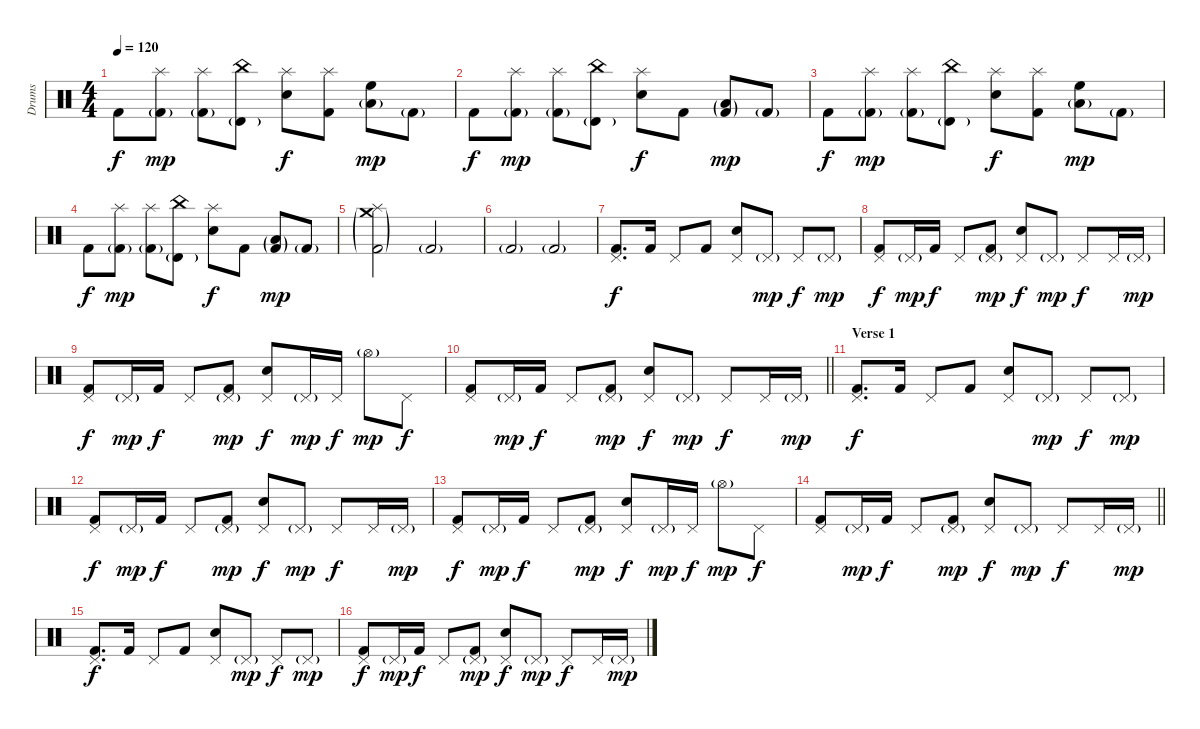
\track ("Drums" "Drums") {instrument percussion}
\staff {score}
\articulation defaults
\ts (4 4)
\tempo 120
\clef neutral
\ks c "Kick (hit) 2".8{dy f}
("Splash (hit)" "Kick (hit) 2"{g}).8{dy mp} ("Splash (hit)" "Kick (hit) 2"{g}).8 ("China (hit)" "Timbale high (hit)"{g}).8 ("Splash (hit)" "Electric Snare (hit)").8{dy f} ("Splash (hit)" "Kick (hit) 2").8 ("High Floor Tom (hit)" "Low Tom (hit)"{g}).8{dy mp} "Kick (hit) 2"{g}.8 |
"Kick (hit) 2".8{dy f} ("Splash (hit)" "Kick (hit) 2"{g}).8{dy mp} ("Splash (hit)" "Kick (hit) 2"{g}).8 ("China (hit)" "Timbale high (hit)"{g}).8 ("Splash (hit)" "Electric Snare (hit)").8{dy f} "Kick (hit) 2".8 ("Low Tom (hit)"{g} "Kick (hit) 2"{g}).8{dy mp} "Kick (hit) 2"{g}.8 |
"Kick (hit) 2".8{dy f} ("Splash (hit)" "Kick (hit) 2"{g}).8{dy mp} ("Splash (hit)" "Kick (hit) 2"{g}).8 ("China (hit)" "Timbale high (hit)"{g}).8 ("Splash (hit)" "Electric Snare (hit)").8{dy f} ("Splash (hit)" "Kick (hit) 2").8 ("High Floor Tom (hit)" "Low Tom (hit)"{g}).8{dy mp} "Kick (hit) 2"{g}.8 |
"Kick (hit) 2".8{dy f} ("Splash (hit)" "Kick (hit) 2"{g}).8{dy mp} ("Splash (hit)" "Kick (hit) 2"{g}).8 ("China (hit)" "Timbale high (hit)"{g}).8 ("Splash (hit)" "Electric Snare (hit)").8{dy f} "Kick (hit) 2".8 ("Low Tom (hit)"{g} "Kick (hit) 2"{g}).8{dy mp} "Kick (hit) 2"{g}.8 |
("Crash medium (hit)"{g} "Splash (hit)" "Kick (hit) 2"{g}).2 "Kick (hit) 2"{g}.2 |
"Kick (hit) 2"{g}.2 "Kick (hit) 2"{g}.2 |
("Pedal Hi-Hat (hit)" "Kick (hit) 2").8{d dy f} "Kick (hit) 2".16 "Pedal Hi-Hat (hit)".8 "Kick (hit) 2".8 ("Pedal Hi-Hat (hit)" "Electric Snare (hit)").8 "Pedal Hi-Hat (hit)"{g}.8{dy mp} "Pedal Hi-Hat (hit)".8{dy f} "Pedal Hi-Hat (hit)"{g}.8{dy mp} |
("Pedal Hi-Hat (hit)" "Kick (hit) 2").8{dy f} "Pedal Hi-Hat (hit)"{g}.16{dy mp} "Kick (hit) 2".16{dy f} "Pedal Hi-Hat (hit)".8 ("Pedal Hi-Hat (hit)"{g} "Kick (hit) 2").8{dy mp} ("Pedal Hi-Hat (hit)" "Electric Snare (hit)").8{dy f} "Pedal Hi-Hat (hit)"{g}.8{dy mp} "Pedal Hi-Hat (hit)".8{dy f} "Pedal Hi-Hat (hit)".16 "Pedal Hi-Hat (hit)"{g}.16{dy mp} |
("Pedal Hi-Hat (hit)" "Kick (hit) 2").8{dy f} "Pedal Hi-Hat (hit)"{g}.16{dy mp} "Kick (hit) 2".16{dy f} "Pedal Hi-Hat (hit)".8 ("Pedal Hi-Hat (hit)"{g} "Kick (hit) 2").8{dy mp} ("Pedal Hi-Hat (hit)" "Electric Snare (hit)").8{dy f} "Pedal Hi-Hat (hit)"{g}.16{dy mp} "Pedal Hi-Hat (hit)".16{dy f} "Hi-Hat (open)"{g}.8{dy mp} "Pedal Hi-Hat (hit)".8{dy f} |
\barLineRight lightlight
("Pedal Hi-Hat (hit)" "Kick (hit) 2").8 "Pedal Hi-Hat (hit)"{g}.16{dy mp} "Kick (hit) 2".16{dy f} "Pedal Hi-Hat (hit)".8 ("Pedal Hi-Hat (hit)"{g} "Kick (hit) 2").8{dy mp} ("Pedal Hi-Hat (hit)" "Electric Snare (hit)").8{dy f} "Pedal Hi-Hat (hit)"{g}.8{dy mp} "Pedal Hi-Hat (hit)".8{dy f} "Pedal Hi-Hat (hit)".16 "Pedal Hi-Hat (hit)"{g}.16{dy mp} |
\section ("" "Verse 1")
("Pedal Hi-Hat (hit)" "Kick (hit) 2").8{d dy f} "Kick (hit) 2".16 "Pedal Hi-Hat (hit)".8 "Kick (hit) 2".8 ("Pedal Hi-Hat (hit)" "Electric Snare (hit)").8 "Pedal Hi-Hat (hit)"{g}.8{dy mp} "Pedal Hi-Hat (hit)".8{dy f} "Pedal Hi-Hat (hit)"{g}.8{dy mp} |
("Pedal Hi-Hat (hit)" "Kick (hit) 2").8{dy f} "Pedal Hi-Hat (hit)"{g}.16{dy mp} "Kick (hit) 2".16{dy f} "Pedal Hi-Hat (hit)".8 ("Pedal Hi-Hat (hit)"{g} "Kick (hit) 2").8{dy mp} ("Pedal Hi-Hat (hit)" "Electric Snare (hit)").8{dy f} "Pedal Hi-Hat (hit)"{g}.8{dy mp} "Pedal Hi-Hat (hit)".8{dy f} "Pedal Hi-Hat (hit)".16 "Pedal Hi-Hat (hit)"{g}.16{dy mp} |
("Pedal Hi-Hat (hit)" "Kick (hit) 2").8{dy f} "Pedal Hi-Hat (hit)"{g}.16{dy mp} "Kick (hit) 2".16{dy f} "Pedal Hi-Hat (hit)".8 ("Pedal Hi-Hat (hit)"{g} "Kick (hit) 2").8{dy mp} ("Pedal Hi-Hat (hit)" "Electric Snare (hit)").8{dy f} "Pedal Hi-Hat (hit)"{g}.16{dy mp} "Pedal Hi-Hat (hit)".16{dy f} "Hi-Hat (open)"{g}.8{dy mp} "Pedal Hi-Hat (hit)".8{dy f} |
\barLineRight lightlight
("Pedal Hi-Hat (hit)" "Kick (hit) 2").8 "Pedal Hi-Hat (hit)"{g}.16{dy mp} "Kick (hit) 2".16{dy f} "Pedal Hi-Hat (hit)".8 ("Pedal Hi-Hat (hit)"{g} "Kick (hit) 2").8{dy mp} ("Pedal Hi-Hat (hit)" "Electric Snare (hit)").8{dy f} "Pedal Hi-Hat (hit)"{g}.8{dy mp} "Pedal Hi-Hat (hit)".8{dy f} "Pedal Hi-Hat (hit)".16 "Pedal Hi-Hat (hit)"{g}.16{dy mp} |
("Pedal Hi-Hat (hit)" "Kick (hit) 2").8{d dy f} "Kick (hit) 2".16 "Pedal Hi-Hat (hit)".8 "Kick (hit) 2".8 ("Pedal Hi-Hat (hit)" "Electric Snare (hit)").8 "Pedal Hi-Hat (hit)"{g}.8{dy mp} "Pedal Hi-Hat (hit)".8{dy f} "Pedal Hi-Hat (hit)"{g}.8{dy mp} |
("Pedal Hi-Hat (hit)" "Kick (hit) 2").8{dy f} "Pedal Hi-Hat (hit)"{g}.16{dy mp} "Kick (hit) 2".16{dy f} "Pedal Hi-Hat (hit)".8 ("Pedal Hi-Hat (hit)"{g} "Kick (hit) 2").8{dy mp} ("Pedal Hi-Hat (hit)" "Electric Snare (hit)").8{dy f} "Pedal Hi-Hat (hit)"{g}.8{dy mp} "Pedal Hi-Hat (hit)".8{dy f} "Pedal Hi-Hat (hit)".16 "Pedal Hi-Hat (hit)"{g}.16{dy mp}
